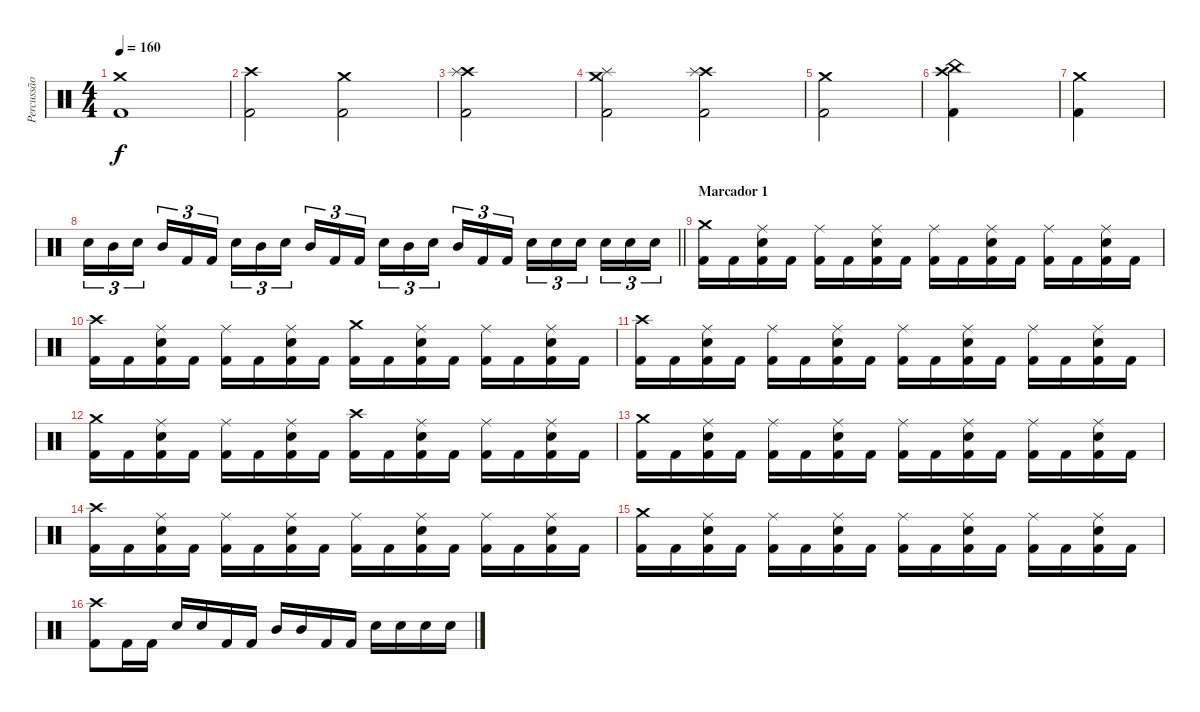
\track ("Percussão" "Percussão") {instrument percussion}
\staff {score}
\articulation defaults
\ts (4 4)
\tempo 160
\clef neutral
\ks c
("Crash medium (hit)" "Kick (hit) 2").1{dy f} |
("Crash high (hit)" "Kick (hit) 2").2 ("Crash medium (hit)" "Kick (hit) 2").2 |
("Crash high (hit)" "Splash (hit)" "Kick (hit) 2").2 |
("Crash medium (hit)" "Splash (hit)" "Kick (hit) 2").2 ("Crash high (hit)" "Splash (hit)" "Kick (hit) 2").2 |
("Crash medium (hit)" "Kick (hit) 2").2 |
("Crash high (hit)" "China (hit)" "Kick (hit) 2").4 |
("Crash medium (hit)" "Kick (hit) 2").4 |
\barLineRight lightlight "Electric Snare (hit)".16{tu (3 2)} "Mid Tom (hit)".16{tu (3 2)} "Electric Snare (hit)".16{tu (3 2) beam splitsecondary} "Mid Tom (hit)".16{tu (3 2)} "Kick (hit) 2".16{tu (3 2)} "Kick (hit) 2".16{tu (3 2)} "Electric Snare (hit)".16{tu (3 2)} "Mid Tom (hit)".16{tu (3 2)} "Electric Snare (hit)".16{tu (3 2) beam splitsecondary} "Mid Tom (hit)".16{tu (3 2)} "Kick (hit) 2".16{tu (3 2)} "Kick (hit) 2".16{tu (3 2)} "Electric Snare (hit)".16{tu (3 2)} "Mid Tom (hit)".16{tu (3 2)} "Electric Snare (hit)".16{tu (3 2) beam splitsecondary} "Mid Tom (hit)".16{tu (3 2)} "Kick (hit) 2".16{tu (3 2)} "Kick (hit) 2".16{tu (3 2)} "Electric Snare (hit)".16{tu (3 2)} "Electric Snare (hit)".16{tu (3 2)} "Electric Snare (hit)".16{tu (3 2) beam splitsecondary} "Electric Snare (hit)".16{tu (3 2)} "Electric Snare (hit)".16{tu (3 2)} "Electric Snare (hit)".16{tu (3 2)}
|
\section ("" "Marcador 1")
("Crash medium (hit)" "Kick (hit) 2").16 "Kick (hit) 2".16 ("Ride (middle)" "Electric Snare (hit)" "Kick (hit) 2").16 "Kick (hit) 2".16 ("Ride (middle)" "Kick (hit) 2").16 "Kick (hit) 2".16 ("Ride (middle)" "Electric Snare (hit)" "Kick (hit) 2").16 "Kick (hit) 2".16 ("Ride (middle)" "Kick (hit) 2").16 "Kick (hit) 2".16 ("Ride (middle)" "Electric Snare (hit)" "Kick (hit) 2").16 "Kick (hit) 2".16 ("Ride (middle)" "Kick (hit) 2").16 "Kick (hit) 2".16 ("Ride (middle)" "Electric Snare (hit)" "Kick (hit) 2").16 "Kick (hit) 2".16 |
("Crash high (hit)" "Kick (hit) 2").16 "Kick (hit) 2".16 ("Ride (middle)" "Electric Snare (hit)" "Kick (hit) 2").16 "Kick (hit) 2".16 ("Ride (middle)" "Kick (hit) 2").16 "Kick (hit) 2".16 ("Ride (middle)" "Electric Snare (hit)" "Kick (hit) 2").16 "Kick (hit) 2".16 ("Crash medium (hit)" "Kick (hit) 2").16 "Kick (hit) 2".16 ("Ride (middle)" "Electric Snare (hit)" "Kick (hit) 2").16 "Kick (hit) 2".16 ("Ride (middle)" "Kick (hit) 2").16 "Kick (hit) 2".16 ("Ride (middle)" "Electric Snare (hit)" "Kick (hit) 2").16 "Kick (hit) 2".16 |
("Crash high (hit)" "Kick (hit) 2").16 "Kick (hit) 2".16 ("Ride (middle)" "Electric Snare (hit)" "Kick (hit) 2").16 "Kick (hit) 2".16 ("Ride (middle)" "Kick (hit) 2").16 "Kick (hit) 2".16 ("Ride (middle)" "Electric Snare (hit)" "Kick (hit) 2").16 "Kick (hit) 2".16 ("Ride (middle)" "Kick (hit) 2").16 "Kick (hit) 2".16 ("Ride (middle)" "Electric Snare (hit)" "Kick (hit) 2").16 "Kick (hit) 2".16 ("Ride (middle)" "Kick (hit) 2").16 "Kick (hit) 2".16 ("Ride (middle)" "Electric Snare (hit)" "Kick (hit) 2").16 "Kick (hit) 2".16 |
("Crash medium (hit)" "Kick (hit) 2").16 "Kick (hit) 2".16 ("Ride (middle)" "Electric Snare (hit)" "Kick (hit) 2").16 "Kick (hit) 2".16 ("Ride (middle)" "Kick (hit) 2").16 "Kick (hit) 2".16 ("Ride (middle)" "Electric Snare (hit)" "Kick (hit) 2").16 "Kick (hit) 2".16 ("Crash high (hit)" "Kick (hit) 2").16 "Kick (hit) 2".16 ("Ride (middle)" "Electric Snare (hit)" "Kick (hit) 2").16 "Kick (hit) 2".16 ("Ride (middle)" "Kick (hit) 2").16 "Kick (hit) 2".16 ("Ride (middle)" "Electric Snare (hit)" "Kick (hit) 2").16 "Kick (hit) 2".16 |
("Crash medium (hit)" "Kick (hit) 2").16 "Kick (hit) 2".16 ("Ride (middle)" "Electric Snare (hit)" "Kick (hit) 2").16 "Kick (hit) 2".16 ("Ride (middle)" "Kick (hit) 2").16 "Kick (hit) 2".16 ("Ride (middle)" "Electric Snare (hit)" "Kick (hit) 2").16 "Kick (hit) 2".16 ("Ride (middle)" "Kick (hit) 2").16 "Kick (hit) 2".16 ("Ride (middle)" "Electric Snare (hit)" "Kick (hit) 2").16 "Kick (hit) 2".16 ("Ride (middle)" "Kick (hit) 2").16 "Kick (hit) 2".16 ("Ride (middle)" "Electric Snare (hit)" "Kick (hit) 2").16 "Kick (hit) 2".16 |
("Crash high (hit)" "Kick (hit) 2").16 "Kick (hit) 2".16 ("Ride (middle)" "Electric Snare (hit)" "Kick (hit) 2").16 "Kick (hit) 2".16 ("Ride (middle)" "Kick (hit) 2").16 "Kick (hit) 2".16 ("Ride (middle)" "Electric Snare (hit)" "Kick (hit) 2").16 "Kick (hit) 2".16 ("Ride (middle)" "Kick (hit) 2").16 "Kick (hit) 2".16 ("Ride (middle)" "Electric Snare (hit)" "Kick (hit) 2").16 "Kick (hit) 2".16 ("Ride (middle)" "Kick (hit) 2").16 "Kick (hit) 2".16 ("Ride (middle)" "Electric Snare (hit)" "Kick (hit) 2").16 "Kick (hit) 2".16 |
("Crash medium (hit)" "Kick (hit) 2").16 "Kick (hit) 2".16 ("Ride (middle)" "Electric Snare (hit)" "Kick (hit) 2").16 "Kick (hit) 2".16 ("Ride (middle)" "Kick (hit) 2").16 "Kick (hit) 2".16 ("Ride (middle)" "Electric Snare (hit)" "Kick (hit) 2").16 "Kick (hit) 2".16 ("Ride (middle)" "Kick (hit) 2").16 "Kick (hit) 2".16 ("Ride (middle)" "Electric Snare (hit)" "Kick (hit) 2").16 "Kick (hit) 2".16 ("Ride (middle)" "Kick (hit) 2").16 "Kick (hit) 2".16 ("Ride (middle)" "Electric Snare (hit)" "Kick (hit) 2").16 "Kick (hit) 2".16 |
("Crash high (hit)" "Kick (hit) 2").8 "Kick (hit) 2".16 "Kick (hit) 2".16 "Electric Snare (hit)".16 "Electric Snare (hit)".16 "Kick (hit) 2".16 "Kick (hit) 2".16 "Mid Tom (hit)".16 "Mid Tom (hit)".16 "Kick (hit) 2".16 "Kick (hit) 2".16 "Electric Snare (hit)".16 "Electric Snare (hit)".16 "Electric Snare (hit)".16 "Electric Snare (hit)".16
